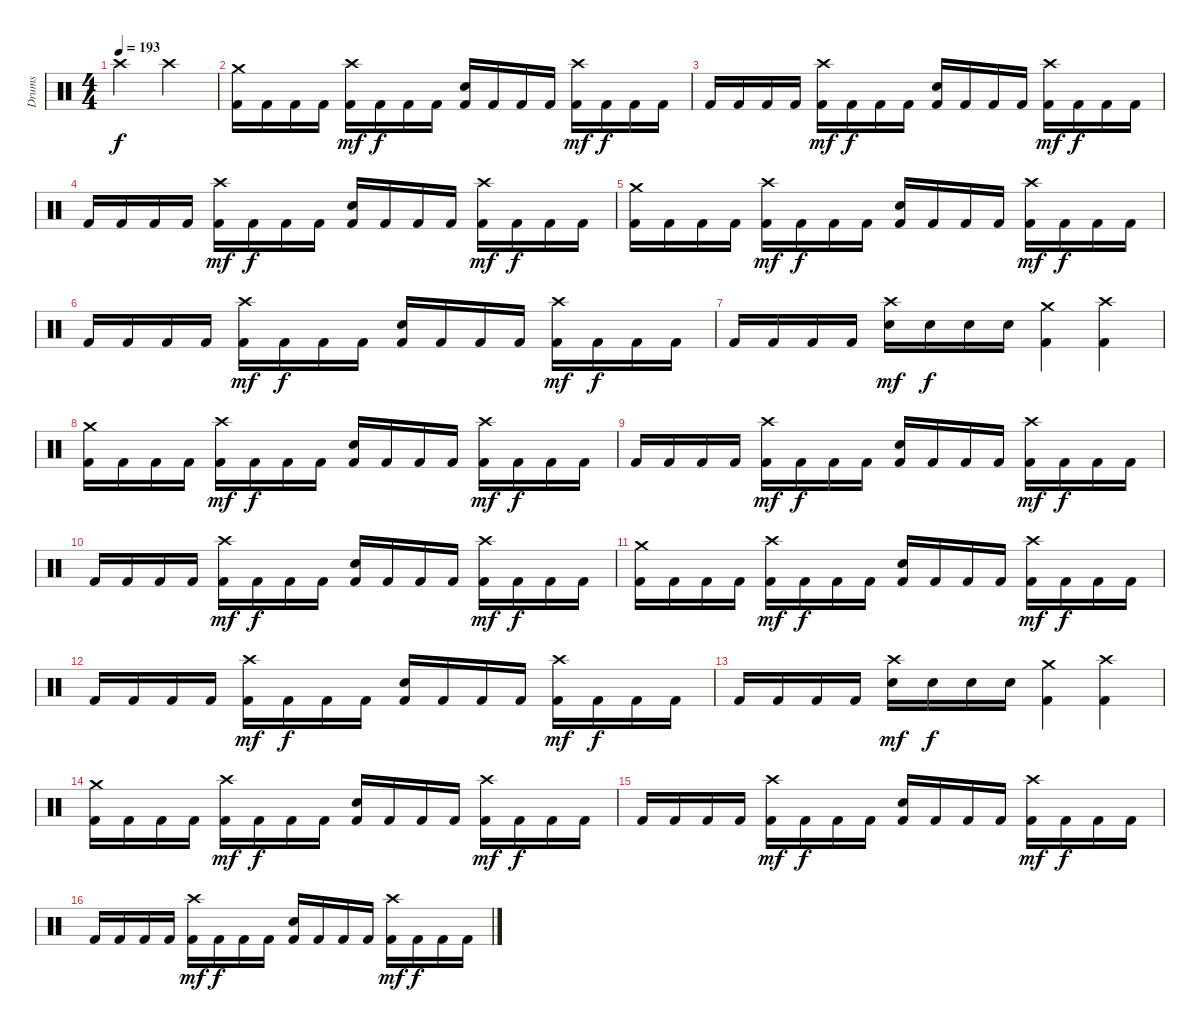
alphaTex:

\track ("Drums" "Drums") {instrument percussion}
\staff {score}
\articulation defaults
\ts (4 4)
\tempo 193
\clef neutral
\ks c "Crash high (hit)".2{dy f} "Crash high (hit)".2
|
("Crash medium (hit)" "Kick (hit) 2").16 "Kick (hit) 2".16 "Kick (hit) 2".16 "Kick (hit) 2".16 ("Crash high (hit)" "Kick (hit) 2").16{dy mf} "Kick (hit) 2".16{dy f} "Kick (hit) 2".16 "Kick (hit) 2".16 ("Snare (hit) 2" "Kick (hit) 2").16 "Kick (hit) 2".16 "Kick (hit) 2".16 "Kick (hit) 2".16 ("Crash high (hit)" "Kick (hit) 2").16{dy mf} "Kick (hit) 2".16{dy f} "Kick (hit) 2".16 "Kick (hit) 2".16 |
"Kick (hit) 2".16 "Kick (hit) 2".16 "Kick (hit) 2".16 "Kick (hit) 2".16 ("Crash high (hit)" "Kick (hit) 2").16{dy mf} "Kick (hit) 2".16{dy f} "Kick (hit) 2".16 "Kick (hit) 2".16 ("Snare (hit) 2" "Kick (hit) 2").16 "Kick (hit) 2".16 "Kick (hit) 2".16 "Kick (hit) 2".16 ("Crash high (hit)" "Kick (hit) 2").16{dy mf} "Kick (hit) 2".16{dy f} "Kick (hit) 2".16 "Kick (hit) 2".16 |
"Kick (hit) 2".16 "Kick (hit) 2".16 "Kick (hit) 2".16 "Kick (hit) 2".16 ("Crash high (hit)" "Kick (hit) 2").16{dy mf} "Kick (hit) 2".16{dy f} "Kick (hit) 2".16 "Kick (hit) 2".16 ("Snare (hit) 2" "Kick (hit) 2").16 "Kick (hit) 2".16 "Kick (hit) 2".16 "Kick (hit) 2".16 ("Crash high (hit)" "Kick (hit) 2").16{dy mf} "Kick (hit) 2".16{dy f} "Kick (hit) 2".16 "Kick (hit) 2".16 |
("Crash medium (hit)" "Kick (hit) 2").16 "Kick (hit) 2".16 "Kick (hit) 2".16 "Kick (hit) 2".16 ("Crash high (hit)" "Kick (hit) 2").16{dy mf} "Kick (hit) 2".16{dy f} "Kick (hit) 2".16 "Kick (hit) 2".16 ("Snare (hit) 2" "Kick (hit) 2").16 "Kick (hit) 2".16 "Kick (hit) 2".16 "Kick (hit) 2".16 ("Crash high (hit)" "Kick (hit) 2").16{dy mf} "Kick (hit) 2".16{dy f} "Kick (hit) 2".16 "Kick (hit) 2".16 |
"Kick (hit) 2".16 "Kick (hit) 2".16 "Kick (hit) 2".16 "Kick (hit) 2".16 ("Crash high (hit)" "Kick (hit) 2").16{dy mf} "Kick (hit) 2".16{dy f} "Kick (hit) 2".16 "Kick (hit) 2".16 ("Snare (hit) 2" "Kick (hit) 2").16 "Kick (hit) 2".16 "Kick (hit) 2".16 "Kick (hit) 2".16 ("Crash high (hit)" "Kick (hit) 2").16{dy mf} "Kick (hit) 2".16{dy f} "Kick (hit) 2".16 "Kick (hit) 2".16 |
"Kick (hit) 2".16 "Kick (hit) 2".16 "Kick (hit) 2".16 "Kick (hit) 2".16 ("Crash high (hit)" "Snare (hit) 2").16{dy mf} "Snare (hit) 2".16{dy f} "Snare (hit) 2".16 "Snare (hit) 2".16 ("Crash medium (hit)" "Kick (hit) 2").4 ("Crash high (hit)" "Kick (hit) 2").4 |
("Crash medium (hit)" "Kick (hit) 2").16 "Kick (hit) 2".16 "Kick (hit) 2".16 "Kick (hit) 2".16 ("Crash high (hit)" "Kick (hit) 2").16{dy mf} "Kick (hit) 2".16{dy f} "Kick (hit) 2".16 "Kick (hit) 2".16 ("Snare (hit) 2" "Kick (hit) 2").16 "Kick (hit) 2".16 "Kick (hit) 2".16 "Kick (hit) 2".16 ("Crash high (hit)" "Kick (hit) 2").16{dy mf} "Kick (hit) 2".16{dy f} "Kick (hit) 2".16 "Kick (hit) 2".16 |
"Kick (hit) 2".16 "Kick (hit) 2".16 "Kick (hit) 2".16 "Kick (hit) 2".16 ("Crash high (hit)" "Kick (hit) 2").16{dy mf} "Kick (hit) 2".16{dy f} "Kick (hit) 2".16 "Kick (hit) 2".16 ("Snare (hit) 2" "Kick (hit) 2").16 "Kick (hit) 2".16 "Kick (hit) 2".16 "Kick (hit) 2".16 ("Crash high (hit)" "Kick (hit) 2").16{dy mf} "Kick (hit) 2".16{dy f} "Kick (hit) 2".16 "Kick (hit) 2".16 |
"Kick (hit) 2".16 "Kick (hit) 2".16 "Kick (hit) 2".16 "Kick (hit) 2".16 ("Crash high (hit)" "Kick (hit) 2").16{dy mf} "Kick (hit) 2".16{dy f} "Kick (hit) 2".16 "Kick (hit) 2".16 ("Snare (hit) 2" "Kick (hit) 2").16 "Kick (hit) 2".16 "Kick (hit) 2".16 "Kick (hit) 2".16 ("Crash high (hit)" "Kick (hit) 2").16{dy mf} "Kick (hit) 2".16{dy f} "Kick (hit) 2".16 "Kick (hit) 2".16 |
("Crash medium (hit)" "Kick (hit) 2").16 "Kick (hit) 2".16 "Kick (hit) 2".16 "Kick (hit) 2".16 ("Crash high (hit)" "Kick (hit) 2").16{dy mf} "Kick (hit) 2".16{dy f} "Kick (hit) 2".16 "Kick (hit) 2".16 ("Snare (hit) 2" "Kick (hit) 2").16 "Kick (hit) 2".16 "Kick (hit) 2".16 "Kick (hit) 2".16 ("Crash high (hit)" "Kick (hit) 2").16{dy mf} "Kick (hit) 2".16{dy f} "Kick (hit) 2".16 "Kick (hit) 2".16 |
"Kick (hit) 2".16 "Kick (hit) 2".16 "Kick (hit) 2".16 "Kick (hit) 2".16 ("Crash high (hit)" "Kick (hit) 2").16{dy mf} "Kick (hit) 2".16{dy f} "Kick (hit) 2".16 "Kick (hit) 2".16 ("Snare (hit) 2" "Kick (hit) 2").16 "Kick (hit) 2".16 "Kick (hit) 2".16 "Kick (hit) 2".16 ("Crash high (hit)" "Kick (hit) 2").16{dy mf} "Kick (hit) 2".16{dy f} "Kick (hit) 2".16 "Kick (hit) 2".16 |
"Kick (hit) 2".16 "Kick (hit) 2".16 "Kick (hit) 2".16 "Kick (hit) 2".16 ("Crash high (hit)" "Snare (hit) 2").16{dy mf} "Snare (hit) 2".16{dy f} "Snare (hit) 2".16 "Snare (hit) 2".16 ("Crash medium (hit)" "Kick (hit) 2").4 ("Crash high (hit)" "Kick (hit) 2").4 |
("Crash medium (hit)" "Kick (hit) 2").16 "Kick (hit) 2".16 "Kick (hit) 2".16 "Kick (hit) 2".16 ("Crash high (hit)" "Kick (hit) 2").16{dy mf} "Kick (hit) 2".16{dy f} "Kick (hit) 2".16 "Kick (hit) 2".16 ("Snare (hit) 2" "Kick (hit) 2").16 "Kick (hit) 2".16 "Kick (hit) 2".16 "Kick (hit) 2".16 ("Crash high (hit)" "Kick (hit) 2").16{dy mf} "Kick (hit) 2".16{dy f} "Kick (hit) 2".16 "Kick (hit) 2".16 |
"Kick (hit) 2".16 "Kick (hit) 2".16 "Kick (hit) 2".16 "Kick (hit) 2".16 ("Crash high (hit)" "Kick (hit) 2").16{dy mf} "Kick (hit) 2".16{dy f} "Kick (hit) 2".16 "Kick (hit) 2".16 ("Snare (hit) 2" "Kick (hit) 2").16 "Kick (hit) 2".16 "Kick (hit) 2".16 "Kick (hit) 2".16 ("Crash high (hit)" "Kick (hit) 2").16{dy mf} "Kick (hit) 2".16{dy f} "Kick (hit) 2".16 "Kick (hit) 2".16 |
"Kick (hit) 2".16 "Kick (hit) 2".16 "Kick (hit) 2".16 "Kick (hit) 2".16 ("Crash high (hit)" "Kick (hit) 2").16{dy mf} "Kick (hit) 2".16{dy f} "Kick (hit) 2".16 "Kick (hit) 2".16 ("Snare (hit) 2" "Kick (hit) 2").16 "Kick (hit) 2".16 "Kick (hit) 2".16 "Kick (hit) 2".16 ("Crash high (hit)" "Kick (hit) 2").16{dy mf} "Kick (hit) 2".16{dy f} "Kick (hit) 2".16 "Kick (hit) 2".16
